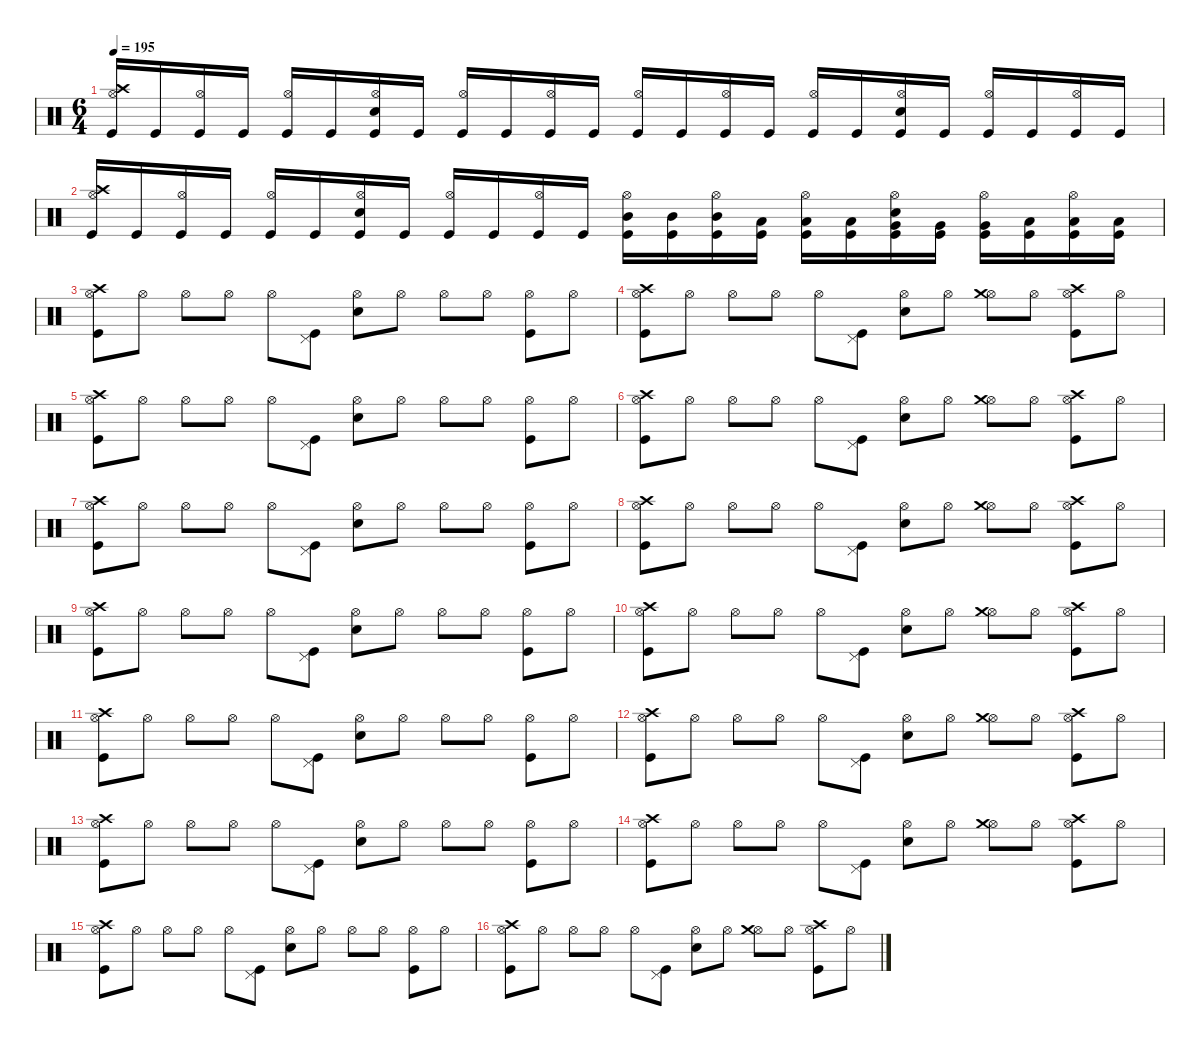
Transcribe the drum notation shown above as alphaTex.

\defaultSystemsLayout 4
\hideDynamics
\bracketExtendMode nobrackets
\singleTrackTrackNamePolicy hidden
\multiTrackTrackNamePolicy hidden
\firstSystemTrackNameMode fullname
\firstSystemTrackNameOrientation horizontal
\otherSystemsTrackNameOrientation horizontal
\track ("Percussion" "drm.") {instrument percussion}
\staff {score}
\articulation defaults
\ts (6 4)
\tempo 195
\clef neutral
\ks c
("Crash high (hit)" "Hi-Hat (open)" "Kick (hit)").16{dy f beam Up} "Kick (hit)".16{beam Up} ("Hi-Hat (open)" "Kick (hit)").16{beam Up} "Kick (hit)".16{beam Up} ("Hi-Hat (open)" "Kick (hit)").16{beam Up} "Kick (hit)".16{beam Up} ("Snare (hit) 2" "Hi-Hat (open)" "Kick (hit)").16{beam Up} "Kick (hit)".16{beam Up} ("Hi-Hat (open)" "Kick (hit)").16{beam Up} "Kick (hit)".16{beam Up} ("Hi-Hat (open)" "Kick (hit)").16{beam Up} "Kick (hit)".16{beam Up} ("Hi-Hat (open)" "Kick (hit)").16{beam Up} "Kick (hit)".16{beam Up} ("Hi-Hat (open)" "Kick (hit)").16{beam Up} "Kick (hit)".16{beam Up} ("Hi-Hat (open)" "Kick (hit)").16{beam Up} "Kick (hit)".16{beam Up} ("Snare (hit) 2" "Hi-Hat (open)" "Kick (hit)").16{beam Up} "Kick (hit)".16{beam Up} ("Hi-Hat (open)" "Kick (hit)").16{beam Up} "Kick (hit)".16{beam Up} ("Hi-Hat (open)" "Kick (hit)").16{beam Up} "Kick (hit)".16{beam Up} |
("Crash high (hit)" "Hi-Hat (open)" "Kick (hit)").16{beam Up} "Kick (hit)".16{beam Up} ("Hi-Hat (open)" "Kick (hit)").16{beam Up} "Kick (hit)".16{beam Up} ("Hi-Hat (open)" "Kick (hit)").16{beam Up} "Kick (hit)".16{beam Up} ("Snare (hit) 2" "Hi-Hat (open)" "Kick (hit)").16{beam Up} "Kick (hit)".16{beam Up} ("Hi-Hat (open)" "Kick (hit)").16{beam Up} "Kick (hit)".16{beam Up} ("Hi-Hat (open)" "Kick (hit)").16{beam Up} "Kick (hit)".16{beam Up} ("Hi-Hat (open)" "Mid Tom (hit)" "Kick (hit)").16{beam Down} ("Mid Tom (hit)" "Kick (hit)").16{beam Down} ("Hi-Hat (open)" "Mid Tom (hit)" "Kick (hit)").16{beam Down} ("Low Tom (hit)" "Kick (hit)").16{beam Down} ("Hi-Hat (open)" "Low Tom (hit)" "Kick (hit)").16{beam Down} ("Low Tom (hit)" "Kick (hit)").16{beam Down} ("Snare (hit) 2" "Hi-Hat (open)" "Very Low Tom (hit)" "Kick (hit)").16{beam Down} ("Very Low Tom (hit)" "Kick (hit)").16{beam Down} ("Hi-Hat (open)" "Very Low Tom (hit)" "Kick (hit)").16{beam Down} ("Low Floor Tom (hit)" "Kick (hit)").16{beam Down} ("Hi-Hat (open)" "Low Floor Tom (hit)" "Kick (hit)").16{beam Down} ("Low Floor Tom (hit)" "Kick (hit)").16{beam Down} |
("Crash high (hit)" "Hi-Hat (open)" "Kick (hit)").8{beam Down} "Hi-Hat (open)".8{beam Down} "Hi-Hat (open)".8{beam Down} "Hi-Hat (open)".8{beam Down} "Hi-Hat (open)".8{beam Down} ("Pedal Hi-Hat (hit)" "Kick (hit)").8{beam Down} ("Hi-Hat (open)" "Snare (hit) 2").8{beam Down} "Hi-Hat (open)".8{beam Down} "Hi-Hat (open)".8{beam Down} "Hi-Hat (open)".8{beam Down} ("Hi-Hat (open)" "Kick (hit)").8{beam Down} "Hi-Hat (open)".8{beam Down} |
("Crash high (hit)" "Hi-Hat (open)" "Kick (hit)").8{beam Down} "Hi-Hat (open)".8{beam Down} "Hi-Hat (open)".8{beam Down} "Hi-Hat (open)".8{beam Down} "Hi-Hat (open)".8{beam Down} ("Pedal Hi-Hat (hit)" "Kick (hit)").8{beam Down} ("Hi-Hat (open)" "Snare (hit) 2").8{beam Down} "Hi-Hat (open)".8{beam Down} ("Hi-Hat (open)" "Crash medium (hit)").8{beam Down} "Hi-Hat (open)".8{beam Down} ("Hi-Hat (open)" "Crash high (hit)" "Kick (hit)").8{beam Down} "Hi-Hat (open)".8{beam Down} |
("Crash high (hit)" "Hi-Hat (open)" "Kick (hit)").8{beam Down} "Hi-Hat (open)".8{beam Down} "Hi-Hat (open)".8{beam Down} "Hi-Hat (open)".8{beam Down} "Hi-Hat (open)".8{beam Down} ("Pedal Hi-Hat (hit)" "Kick (hit)").8{beam Down} ("Hi-Hat (open)" "Snare (hit) 2").8{beam Down} "Hi-Hat (open)".8{beam Down} "Hi-Hat (open)".8{beam Down} "Hi-Hat (open)".8{beam Down} ("Hi-Hat (open)" "Kick (hit)").8{beam Down} "Hi-Hat (open)".8{beam Down} |
("Crash high (hit)" "Hi-Hat (open)" "Kick (hit)").8{beam Down} "Hi-Hat (open)".8{beam Down} "Hi-Hat (open)".8{beam Down} "Hi-Hat (open)".8{beam Down} "Hi-Hat (open)".8{beam Down} ("Pedal Hi-Hat (hit)" "Kick (hit)").8{beam Down} ("Hi-Hat (open)" "Snare (hit) 2").8{beam Down} "Hi-Hat (open)".8{beam Down} ("Hi-Hat (open)" "Crash medium (hit)").8{beam Down} "Hi-Hat (open)".8{beam Down} ("Hi-Hat (open)" "Crash high (hit)" "Kick (hit)").8{beam Down} "Hi-Hat (open)".8{beam Down} |
("Crash high (hit)" "Hi-Hat (open)" "Kick (hit)").8{beam Down} "Hi-Hat (open)".8{beam Down} "Hi-Hat (open)".8{beam Down} "Hi-Hat (open)".8{beam Down} "Hi-Hat (open)".8{beam Down} ("Pedal Hi-Hat (hit)" "Kick (hit)").8{beam Down} ("Hi-Hat (open)" "Snare (hit) 2").8{beam Down} "Hi-Hat (open)".8{beam Down} "Hi-Hat (open)".8{beam Down} "Hi-Hat (open)".8{beam Down} ("Hi-Hat (open)" "Kick (hit)").8{beam Down} "Hi-Hat (open)".8{beam Down} |
("Crash high (hit)" "Hi-Hat (open)" "Kick (hit)").8{beam Down} "Hi-Hat (open)".8{beam Down} "Hi-Hat (open)".8{beam Down} "Hi-Hat (open)".8{beam Down} "Hi-Hat (open)".8{beam Down} ("Pedal Hi-Hat (hit)" "Kick (hit)").8{beam Down} ("Hi-Hat (open)" "Snare (hit) 2").8{beam Down} "Hi-Hat (open)".8{beam Down} ("Hi-Hat (open)" "Crash medium (hit)").8{beam Down} "Hi-Hat (open)".8{beam Down} ("Hi-Hat (open)" "Crash high (hit)" "Kick (hit)").8{beam Down} "Hi-Hat (open)".8{beam Down} |
("Crash high (hit)" "Hi-Hat (open)" "Kick (hit)").8{beam Down} "Hi-Hat (open)".8{beam Down} "Hi-Hat (open)".8{beam Down} "Hi-Hat (open)".8{beam Down} "Hi-Hat (open)".8{beam Down} ("Pedal Hi-Hat (hit)" "Kick (hit)").8{beam Down} ("Hi-Hat (open)" "Snare (hit) 2").8{beam Down} "Hi-Hat (open)".8{beam Down} "Hi-Hat (open)".8{beam Down} "Hi-Hat (open)".8{beam Down} ("Hi-Hat (open)" "Kick (hit)").8{beam Down} "Hi-Hat (open)".8{beam Down} |
("Crash high (hit)" "Hi-Hat (open)" "Kick (hit)").8{beam Down} "Hi-Hat (open)".8{beam Down} "Hi-Hat (open)".8{beam Down} "Hi-Hat (open)".8{beam Down} "Hi-Hat (open)".8{beam Down} ("Pedal Hi-Hat (hit)" "Kick (hit)").8{beam Down} ("Hi-Hat (open)" "Snare (hit) 2").8{beam Down} "Hi-Hat (open)".8{beam Down} ("Hi-Hat (open)" "Crash medium (hit)").8{beam Down} "Hi-Hat (open)".8{beam Down} ("Hi-Hat (open)" "Crash high (hit)" "Kick (hit)").8{beam Down} "Hi-Hat (open)".8{beam Down} |
("Crash high (hit)" "Hi-Hat (open)" "Kick (hit)").8{beam Down} "Hi-Hat (open)".8{beam Down} "Hi-Hat (open)".8{beam Down} "Hi-Hat (open)".8{beam Down} "Hi-Hat (open)".8{beam Down} ("Pedal Hi-Hat (hit)" "Kick (hit)").8{beam Down} ("Hi-Hat (open)" "Snare (hit) 2").8{beam Down} "Hi-Hat (open)".8{beam Down} "Hi-Hat (open)".8{beam Down} "Hi-Hat (open)".8{beam Down} ("Hi-Hat (open)" "Kick (hit)").8{beam Down} "Hi-Hat (open)".8{beam Down} |
("Crash high (hit)" "Hi-Hat (open)" "Kick (hit)").8{beam Down} "Hi-Hat (open)".8{beam Down} "Hi-Hat (open)".8{beam Down} "Hi-Hat (open)".8{beam Down} "Hi-Hat (open)".8{beam Down} ("Pedal Hi-Hat (hit)" "Kick (hit)").8{beam Down} ("Hi-Hat (open)" "Snare (hit) 2").8{beam Down} "Hi-Hat (open)".8{beam Down} ("Hi-Hat (open)" "Crash medium (hit)").8{beam Down} "Hi-Hat (open)".8{beam Down} ("Hi-Hat (open)" "Crash high (hit)" "Kick (hit)").8{beam Down} "Hi-Hat (open)".8{beam Down} |
("Crash high (hit)" "Hi-Hat (open)" "Kick (hit)").8{beam Down} "Hi-Hat (open)".8{beam Down} "Hi-Hat (open)".8{beam Down} "Hi-Hat (open)".8{beam Down} "Hi-Hat (open)".8{beam Down} ("Pedal Hi-Hat (hit)" "Kick (hit)").8{beam Down} ("Hi-Hat (open)" "Snare (hit) 2").8{beam Down} "Hi-Hat (open)".8{beam Down} "Hi-Hat (open)".8{beam Down} "Hi-Hat (open)".8{beam Down} ("Hi-Hat (open)" "Kick (hit)").8{beam Down} "Hi-Hat (open)".8{beam Down} |
("Crash high (hit)" "Hi-Hat (open)" "Kick (hit)").8{beam Down} "Hi-Hat (open)".8{beam Down} "Hi-Hat (open)".8{beam Down} "Hi-Hat (open)".8{beam Down} "Hi-Hat (open)".8{beam Down} ("Pedal Hi-Hat (hit)" "Kick (hit)").8{beam Down} ("Hi-Hat (open)" "Snare (hit) 2").8{beam Down} "Hi-Hat (open)".8{beam Down} ("Hi-Hat (open)" "Crash medium (hit)").8{beam Down} "Hi-Hat (open)".8{beam Down} ("Hi-Hat (open)" "Crash high (hit)" "Kick (hit)").8{beam Down} "Hi-Hat (open)".8{beam Down} |
("Crash high (hit)" "Hi-Hat (open)" "Kick (hit)").8{beam Down} "Hi-Hat (open)".8{beam Down} "Hi-Hat (open)".8{beam Down} "Hi-Hat (open)".8{beam Down} "Hi-Hat (open)".8{beam Down} ("Pedal Hi-Hat (hit)" "Kick (hit)").8{beam Down} ("Hi-Hat (open)" "Snare (hit) 2").8{beam Down} "Hi-Hat (open)".8{beam Down} "Hi-Hat (open)".8{beam Down} "Hi-Hat (open)".8{beam Down} ("Hi-Hat (open)" "Kick (hit)").8{beam Down} "Hi-Hat (open)".8{beam Down} |
("Crash high (hit)" "Hi-Hat (open)" "Kick (hit)").8{beam Down} "Hi-Hat (open)".8{beam Down} "Hi-Hat (open)".8{beam Down} "Hi-Hat (open)".8{beam Down} "Hi-Hat (open)".8{beam Down} ("Pedal Hi-Hat (hit)" "Kick (hit)").8{beam Down} ("Hi-Hat (open)" "Snare (hit) 2").8{beam Down} "Hi-Hat (open)".8{beam Down} ("Hi-Hat (open)" "Crash medium (hit)").8{beam Down} "Hi-Hat (open)".8{beam Down} ("Hi-Hat (open)" "Crash high (hit)" "Kick (hit)").8{beam Down} "Hi-Hat (open)".8{beam Down}
